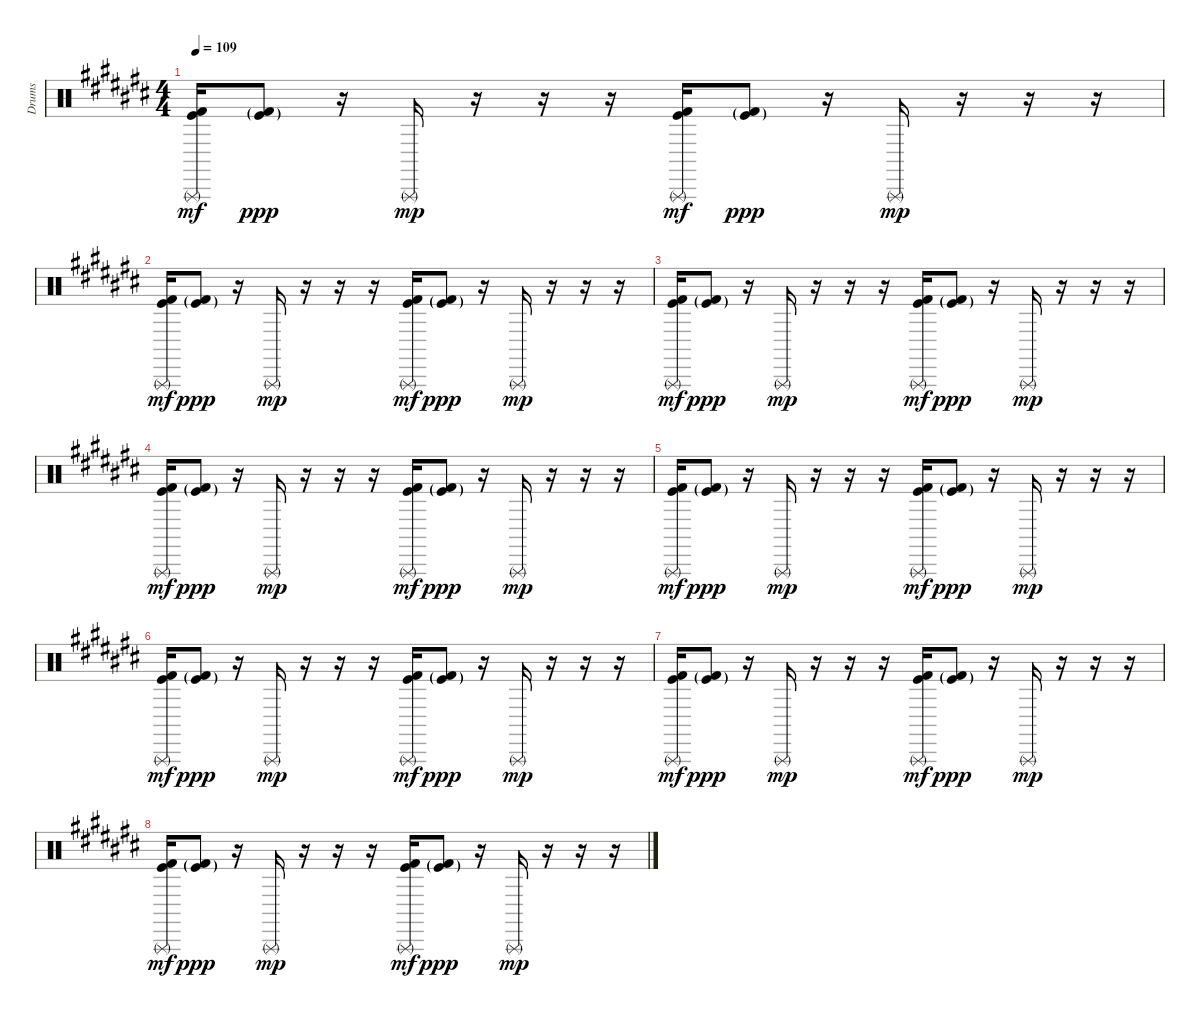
\track ("Drums" "Drums") {instrument percussion}
\staff {score}
\articulation defaults
\ts (4 4)
\tempo 109
\clef neutral
\ks c#
("Kick (hit) 2" "Kick (hit)" "Triangle (rnute)").16{dy mf} ("Kick (hit) 2"{g} "Kick (hit)"{g}).8{dy ppp} r.16 "Triangle (rnute)".16{dy mp} r.16 r.16 r.16 ("Kick (hit) 2" "Kick (hit)" "Triangle (rnute)").16{dy mf} ("Kick (hit) 2"{g} "Kick (hit)"{g}).8{dy ppp} r.16 "Triangle (rnute)".16{dy mp} r.16 r.16 r.16 |
("Kick (hit) 2" "Kick (hit)" "Triangle (rnute)").16{dy mf} ("Kick (hit) 2"{g} "Kick (hit)"{g}).8{dy ppp} r.16 "Triangle (rnute)".16{dy mp} r.16 r.16 r.16 ("Kick (hit) 2" "Kick (hit)" "Triangle (rnute)").16{dy mf} ("Kick (hit) 2"{g} "Kick (hit)"{g}).8{dy ppp} r.16 "Triangle (rnute)".16{dy mp} r.16 r.16 r.16 |
("Kick (hit) 2" "Kick (hit)" "Triangle (rnute)").16{dy mf} ("Kick (hit) 2"{g} "Kick (hit)"{g}).8{dy ppp} r.16 "Triangle (rnute)".16{dy mp} r.16 r.16 r.16 ("Kick (hit) 2" "Kick (hit)" "Triangle (rnute)").16{dy mf} ("Kick (hit) 2"{g} "Kick (hit)"{g}).8{dy ppp} r.16 "Triangle (rnute)".16{dy mp} r.16 r.16 r.16 |
("Kick (hit) 2" "Kick (hit)" "Triangle (rnute)").16{dy mf} ("Kick (hit) 2"{g} "Kick (hit)"{g}).8{dy ppp} r.16 "Triangle (rnute)".16{dy mp} r.16 r.16 r.16 ("Kick (hit) 2" "Kick (hit)" "Triangle (rnute)").16{dy mf} ("Kick (hit) 2"{g} "Kick (hit)"{g}).8{dy ppp} r.16 "Triangle (rnute)".16{dy mp} r.16 r.16 r.16 |
("Kick (hit) 2" "Kick (hit)" "Triangle (rnute)").16{dy mf} ("Kick (hit) 2"{g} "Kick (hit)"{g}).8{dy ppp} r.16 "Triangle (rnute)".16{dy mp} r.16 r.16 r.16 ("Kick (hit) 2" "Kick (hit)" "Triangle (rnute)").16{dy mf} ("Kick (hit) 2"{g} "Kick (hit)"{g}).8{dy ppp} r.16 "Triangle (rnute)".16{dy mp} r.16 r.16 r.16 |
("Kick (hit) 2" "Kick (hit)" "Triangle (rnute)").16{dy mf} ("Kick (hit) 2"{g} "Kick (hit)"{g}).8{dy ppp} r.16 "Triangle (rnute)".16{dy mp} r.16 r.16 r.16 ("Kick (hit) 2" "Kick (hit)" "Triangle (rnute)").16{dy mf} ("Kick (hit) 2"{g} "Kick (hit)"{g}).8{dy ppp} r.16 "Triangle (rnute)".16{dy mp} r.16 r.16 r.16 |
("Kick (hit) 2" "Kick (hit)" "Triangle (rnute)").16{dy mf} ("Kick (hit) 2"{g} "Kick (hit)"{g}).8{dy ppp} r.16 "Triangle (rnute)".16{dy mp} r.16 r.16 r.16 ("Kick (hit) 2" "Kick (hit)" "Triangle (rnute)").16{dy mf} ("Kick (hit) 2"{g} "Kick (hit)"{g}).8{dy ppp} r.16 "Triangle (rnute)".16{dy mp} r.16 r.16 r.16 |
("Kick (hit) 2" "Kick (hit)" "Triangle (rnute)").16{dy mf} ("Kick (hit) 2"{g} "Kick (hit)"{g}).8{dy ppp} r.16 "Triangle (rnute)".16{dy mp} r.16 r.16 r.16 ("Kick (hit) 2" "Kick (hit)" "Triangle (rnute)").16{dy mf} ("Kick (hit) 2"{g} "Kick (hit)"{g}).8{dy ppp} r.16 "Triangle (rnute)".16{dy mp} r.16 r.16 r.16
